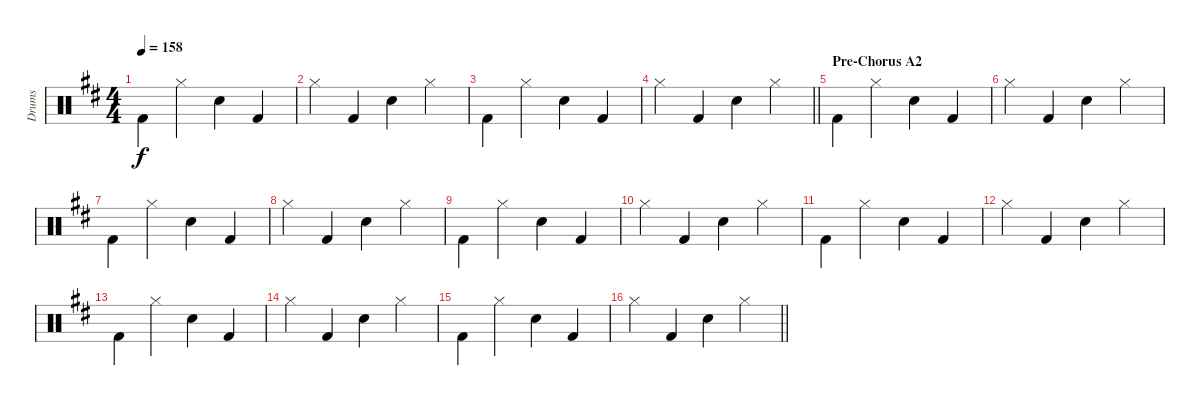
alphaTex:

\track ("Drums" "Drums") {instrument percussion}
\staff {score}
\articulation defaults
\ts (4 4)
\tempo 158
\clef neutral
\ks d "Kick (hit) 2".4{dy f beam merge} "Hi-Hat (closed)".4 "Snare (hit) 2".4 "Kick (hit) 2".4
|
"Hi-Hat (closed)".4 "Kick (hit) 2".4 "Snare (hit) 2".4 "Hi-Hat (closed)".4 |
"Kick (hit) 2".4{beam merge} "Hi-Hat (closed)".4 "Snare (hit) 2".4 "Kick (hit) 2".4 |
\barLineRight lightlight "Hi-Hat (closed)".4 "Kick (hit) 2".4 "Snare (hit) 2".4 "Hi-Hat (closed)".4
|
\section ("" "Pre-Chorus A2")
"Kick (hit) 2".4{beam merge} "Hi-Hat (closed)".4 "Snare (hit) 2".4 "Kick (hit) 2".4 |
"Hi-Hat (closed)".4 "Kick (hit) 2".4 "Snare (hit) 2".4 "Hi-Hat (closed)".4 |
"Kick (hit) 2".4{beam merge} "Hi-Hat (closed)".4 "Snare (hit) 2".4 "Kick (hit) 2".4 |
"Hi-Hat (closed)".4 "Kick (hit) 2".4 "Snare (hit) 2".4 "Hi-Hat (closed)".4 |
"Kick (hit) 2".4{beam merge} "Hi-Hat (closed)".4 "Snare (hit) 2".4 "Kick (hit) 2".4 |
"Hi-Hat (closed)".4 "Kick (hit) 2".4 "Snare (hit) 2".4 "Hi-Hat (closed)".4 |
"Kick (hit) 2".4{beam merge} "Hi-Hat (closed)".4 "Snare (hit) 2".4 "Kick (hit) 2".4 |
"Hi-Hat (closed)".4 "Kick (hit) 2".4 "Snare (hit) 2".4 "Hi-Hat (closed)".4 |
"Kick (hit) 2".4{beam merge} "Hi-Hat (closed)".4 "Snare (hit) 2".4 "Kick (hit) 2".4 |
"Hi-Hat (closed)".4 "Kick (hit) 2".4 "Snare (hit) 2".4 "Hi-Hat (closed)".4 |
"Kick (hit) 2".4{beam merge} "Hi-Hat (closed)".4 "Snare (hit) 2".4 "Kick (hit) 2".4 |
\barLineRight lightlight "Hi-Hat (closed)".4 "Kick (hit) 2".4 "Snare (hit) 2".4 "Hi-Hat (closed)".4
